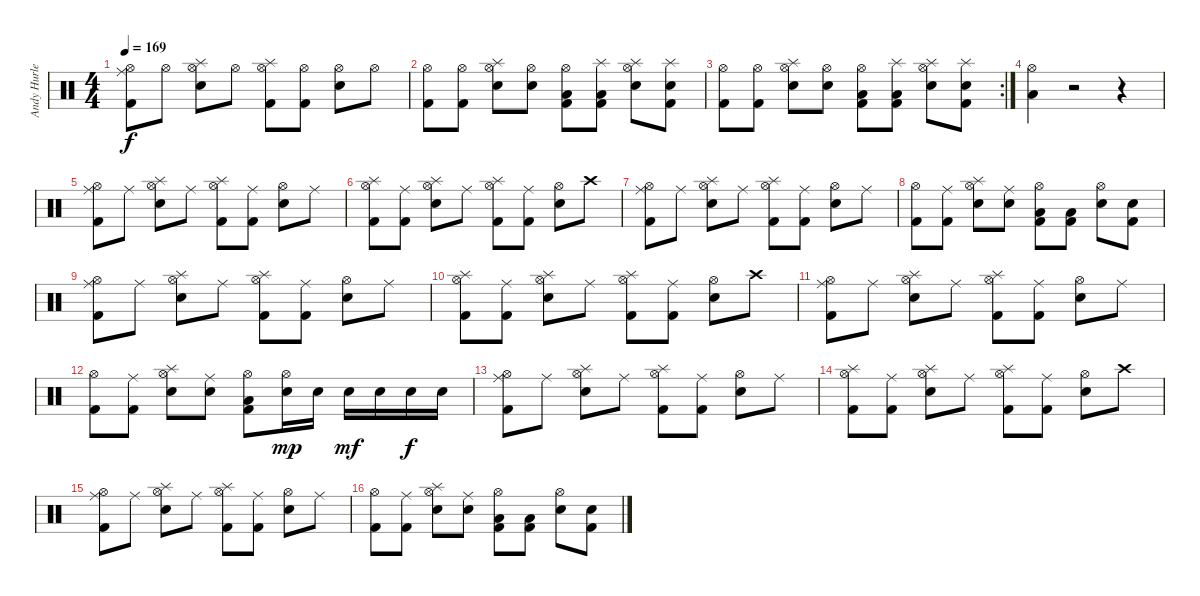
\track ("Andy Hurley" "Andy Hurle") {instrument percussion}
\staff {score}
\articulation defaults
\ts (4 4)
\tempo 169
\clef neutral
\ks c
("Hi-Hat (open)" "Ride (middle)" "Kick (hit) 2").8{dy f} "Hi-Hat (open)".8 ("Hi-Hat (open)" "Splash (hit)" "Electric Snare (hit)").8 "Hi-Hat (open)".8 ("Hi-Hat (open)" "Splash (hit)" "Kick (hit) 2").8 ("Hi-Hat (open)" "Kick (hit) 2").8 ("Hi-Hat (open)" "Electric Snare (hit)").8 "Hi-Hat (open)".8 |
("Hi-Hat (open)" "Kick (hit) 2").8 ("Hi-Hat (open)" "Kick (hit) 2").8 ("Hi-Hat (open)" "Splash (hit)" "Electric Snare (hit)").8 ("Hi-Hat (open)" "Electric Snare (hit)").8 ("Hi-Hat (open)" "Kick (hit) 2" "Low Floor Tom (hit)").8 ("Splash (hit)" "Kick (hit) 2" "Low Floor Tom (hit)").8 ("Splash (hit)" "Hi-Hat (open)" "Snare (hit) 2").8 ("Splash (hit)" "Electric Snare (hit)" "Kick (hit) 2").8 |
\rc 2
("Hi-Hat (open)" "Kick (hit) 2").8 ("Hi-Hat (open)" "Kick (hit) 2").8 ("Hi-Hat (open)" "Splash (hit)" "Electric Snare (hit)").8 ("Hi-Hat (open)" "Electric Snare (hit)").8 ("Hi-Hat (open)" "Kick (hit) 2" "Low Floor Tom (hit)").8 ("Splash (hit)" "Kick (hit) 2" "Low Floor Tom (hit)").8 ("Splash (hit)" "Hi-Hat (open)" "Snare (hit) 2").8 ("Splash (hit)" "Electric Snare (hit)" "Kick (hit) 2").8 |
("Hi-Hat (open)" "Low Floor Tom (hit)").4 r.2 r.4 |
("Hi-Hat (open)" "Ride (middle)" "Kick (hit) 2").8 "Ride (middle)".8 ("Hi-Hat (open)" "Splash (hit)" "Electric Snare (hit)").8 "Ride (middle)".8 ("Hi-Hat (open)" "Splash (hit)" "Kick (hit) 2").8 ("Ride (middle)" "Kick (hit) 2").8 ("Hi-Hat (open)" "Electric Snare (hit)").8 "Ride (middle)".8 |
("Hi-Hat (open)" "Splash (hit)" "Kick (hit) 2").8 ("Ride (middle)" "Kick (hit) 2").8 ("Hi-Hat (open)" "Splash (hit)" "Electric Snare (hit)").8 "Ride (middle)".8 ("Hi-Hat (open)" "Splash (hit)" "Kick (hit) 2").8 ("Ride (middle)" "Kick (hit) 2").8 ("Hi-Hat (open)" "Electric Snare (hit)").8 "Crash high (hit)".8 |
("Hi-Hat (open)" "Ride (middle)" "Kick (hit) 2").8 "Ride (middle)".8 ("Hi-Hat (open)" "Splash (hit)" "Electric Snare (hit)").8 "Ride (middle)".8 ("Hi-Hat (open)" "Splash (hit)" "Kick (hit) 2").8 ("Ride (middle)" "Kick (hit) 2").8 ("Hi-Hat (open)" "Electric Snare (hit)").8 "Ride (middle)".8 |
("Hi-Hat (open)" "Kick (hit) 2").8 ("Ride (middle)" "Kick (hit) 2").8 ("Hi-Hat (open)" "Splash (hit)" "Electric Snare (hit)").8 ("Ride (middle)" "Electric Snare (hit)").8 ("Hi-Hat (open)" "Kick (hit) 2" "Low Floor Tom (hit)").8 ("Kick (hit) 2" "Low Floor Tom (hit)").8 ("Hi-Hat (open)" "Snare (hit) 2").8 ("Electric Snare (hit)" "Kick (hit) 2").8 |
("Hi-Hat (open)" "Ride (middle)" "Kick (hit) 2").8 "Ride (middle)".8 ("Hi-Hat (open)" "Splash (hit)" "Electric Snare (hit)").8 "Ride (middle)".8 ("Hi-Hat (open)" "Splash (hit)" "Kick (hit) 2").8 ("Ride (middle)" "Kick (hit) 2").8 ("Hi-Hat (open)" "Electric Snare (hit)").8 "Ride (middle)".8 |
("Hi-Hat (open)" "Splash (hit)" "Kick (hit) 2").8 ("Ride (middle)" "Kick (hit) 2").8 ("Hi-Hat (open)" "Splash (hit)" "Electric Snare (hit)").8 "Ride (middle)".8 ("Hi-Hat (open)" "Splash (hit)" "Kick (hit) 2").8 ("Ride (middle)" "Kick (hit) 2").8 ("Hi-Hat (open)" "Electric Snare (hit)").8 "Crash high (hit)".8 |
("Hi-Hat (open)" "Ride (middle)" "Kick (hit) 2").8 "Ride (middle)".8 ("Hi-Hat (open)" "Splash (hit)" "Electric Snare (hit)").8 "Ride (middle)".8 ("Hi-Hat (open)" "Splash (hit)" "Kick (hit) 2").8 ("Ride (middle)" "Kick (hit) 2").8 ("Hi-Hat (open)" "Electric Snare (hit)").8 "Ride (middle)".8 |
("Hi-Hat (open)" "Kick (hit) 2").8 ("Ride (middle)" "Kick (hit) 2").8 ("Hi-Hat (open)" "Splash (hit)" "Electric Snare (hit)").8 ("Ride (middle)" "Electric Snare (hit)").8 ("Hi-Hat (open)" "Kick (hit) 2" "Low Floor Tom (hit)").8 ("Hi-Hat (open)" "Electric Snare (hit)").16{dy mp} "Electric Snare (hit)".16 "Electric Snare (hit)".16{dy mf} "Electric Snare (hit)".16 "Electric Snare (hit)".16{dy f} "Electric Snare (hit)".16 |
("Hi-Hat (open)" "Ride (middle)" "Kick (hit) 2").8 "Ride (middle)".8 ("Hi-Hat (open)" "Splash (hit)" "Electric Snare (hit)").8 "Ride (middle)".8 ("Hi-Hat (open)" "Splash (hit)" "Kick (hit) 2").8 ("Ride (middle)" "Kick (hit) 2").8 ("Hi-Hat (open)" "Electric Snare (hit)").8 "Ride (middle)".8 |
("Hi-Hat (open)" "Splash (hit)" "Kick (hit) 2").8 ("Ride (middle)" "Kick (hit) 2").8 ("Hi-Hat (open)" "Splash (hit)" "Electric Snare (hit)").8 "Ride (middle)".8 ("Hi-Hat (open)" "Splash (hit)" "Kick (hit) 2").8 ("Ride (middle)" "Kick (hit) 2").8 ("Hi-Hat (open)" "Electric Snare (hit)").8 "Crash high (hit)".8 |
("Hi-Hat (open)" "Ride (middle)" "Kick (hit) 2").8 "Ride (middle)".8 ("Hi-Hat (open)" "Splash (hit)" "Electric Snare (hit)").8 "Ride (middle)".8 ("Hi-Hat (open)" "Splash (hit)" "Kick (hit) 2").8 ("Ride (middle)" "Kick (hit) 2").8 ("Hi-Hat (open)" "Electric Snare (hit)").8 "Ride (middle)".8 |
("Hi-Hat (open)" "Kick (hit) 2").8 ("Ride (middle)" "Kick (hit) 2").8 ("Hi-Hat (open)" "Splash (hit)" "Electric Snare (hit)").8 ("Ride (middle)" "Electric Snare (hit)").8 ("Hi-Hat (open)" "Kick (hit) 2" "Low Floor Tom (hit)").8 ("Kick (hit) 2" "Low Floor Tom (hit)").8 ("Hi-Hat (open)" "Snare (hit) 2").8 ("Electric Snare (hit)" "Kick (hit) 2").8
